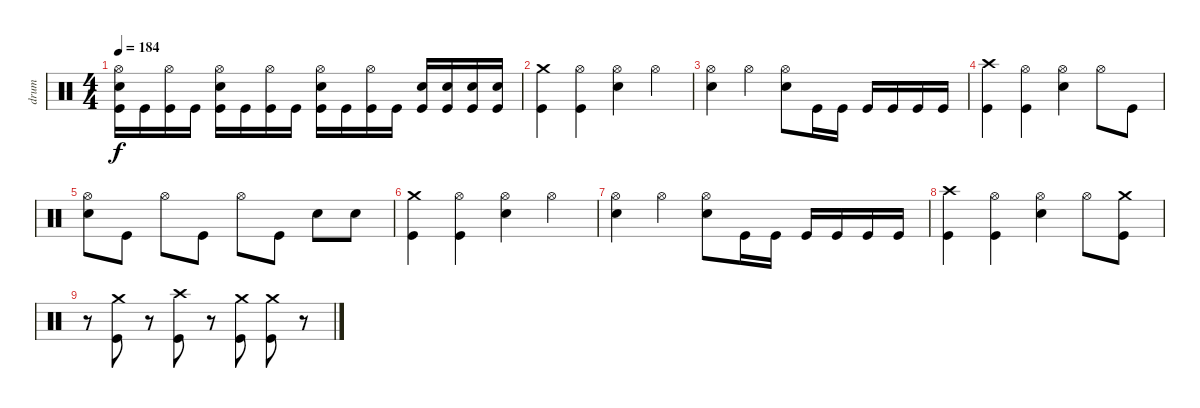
\track ("drum" "drum") {instrument percussion}
\staff {score}
\articulation defaults
\ts (4 4)
\tempo 184
\clef neutral
\ks c
("Hi-Hat (open)" "Electric Snare (hit)" "Kick (hit)").16{dy f} "Kick (hit)".16 ("Hi-Hat (open)" "Kick (hit)").16 "Kick (hit)".16 ("Hi-Hat (open)" "Electric Snare (hit)" "Kick (hit)").16 "Kick (hit)".16 ("Hi-Hat (open)" "Kick (hit)").16 "Kick (hit)".16 ("Hi-Hat (open)" "Electric Snare (hit)" "Kick (hit)").16 "Kick (hit)".16 ("Hi-Hat (open)" "Kick (hit)").16 "Kick (hit)".16 ("Electric Snare (hit)" "Kick (hit)").16 ("Electric Snare (hit)" "Kick (hit)").16 ("Electric Snare (hit)" "Kick (hit)").16 ("Electric Snare (hit)" "Kick (hit)").16 |
("Crash medium (hit)" "Kick (hit)").4 ("Hi-Hat (open)" "Kick (hit)").4 ("Hi-Hat (open)" "Electric Snare (hit)").4 "Hi-Hat (open)".4 |
("Hi-Hat (open)" "Electric Snare (hit)").4 "Hi-Hat (open)".4 ("Hi-Hat (open)" "Electric Snare (hit)").8 "Kick (hit)".16 "Kick (hit)".16 "Kick (hit)".16 "Kick (hit)".16 "Kick (hit)".16 "Kick (hit)".16 |
("Crash high (hit)" "Kick (hit)").4 ("Hi-Hat (open)" "Kick (hit)").4 ("Hi-Hat (open)" "Electric Snare (hit)").4 "Hi-Hat (open)".8 "Kick (hit)".8 |
("Hi-Hat (open)" "Electric Snare (hit)").8 "Kick (hit)".8 "Hi-Hat (open)".8 "Kick (hit)".8 "Hi-Hat (open)".8 "Kick (hit)".8 "Electric Snare (hit)".8 "Electric Snare (hit)".8 |
("Crash medium (hit)" "Kick (hit)").4 ("Hi-Hat (open)" "Kick (hit)").4 ("Hi-Hat (open)" "Electric Snare (hit)").4 "Hi-Hat (open)".4 |
("Hi-Hat (open)" "Electric Snare (hit)").4 "Hi-Hat (open)".4 ("Hi-Hat (open)" "Electric Snare (hit)").8 "Kick (hit)".16 "Kick (hit)".16 "Kick (hit)".16 "Kick (hit)".16 "Kick (hit)".16 "Kick (hit)".16 |
("Crash high (hit)" "Kick (hit)").4 ("Hi-Hat (open)" "Kick (hit)").4 ("Hi-Hat (open)" "Electric Snare (hit)").4 "Hi-Hat (open)".8 ("Crash medium (hit)" "Kick (hit)").8 |
r.8 ("Crash medium (hit)" "Kick (hit)").8 r.8 ("Crash high (hit)" "Kick (hit)").8 r.8 ("Crash medium (hit)" "Kick (hit)").8 ("Crash medium (hit)" "Kick (hit)").8 r.8
